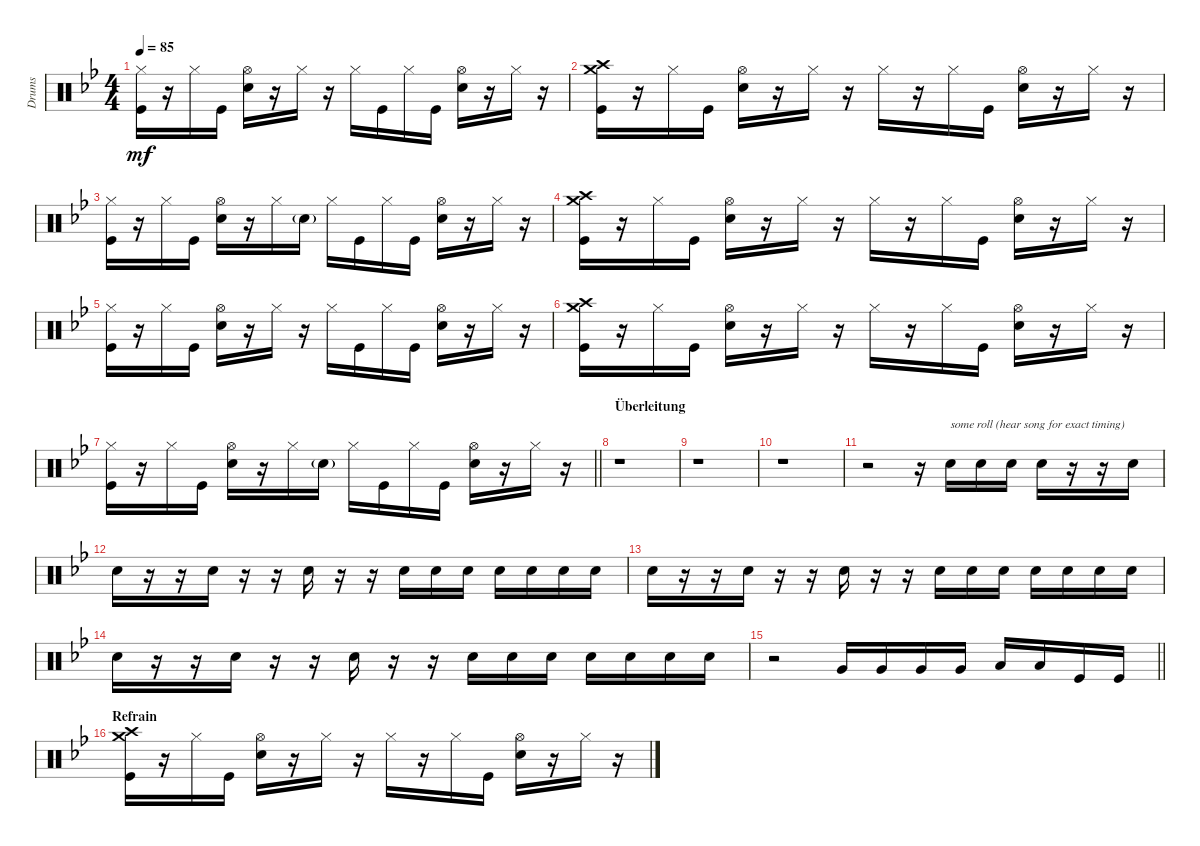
\track ("Drums" "Drums") {instrument percussion}
\staff {score}
\articulation defaults
\ts (4 4)
\tempo 85
\clef neutral
\ks gminor
("Kick (hit)" "Hi-Hat (closed)").16{dy mf} r.16 "Hi-Hat (closed)".16 "Kick (hit)".16 ("Snare (hit) 2" "Hi-Hat (open)").16 r.16 "Hi-Hat (closed)".16 r.16 "Hi-Hat (closed)".16 "Kick (hit)".16 "Hi-Hat (closed)".16 "Kick (hit)".16 ("Snare (hit) 2" "Hi-Hat (open)").16 r.16 "Hi-Hat (closed)".16 r.16 |
("Kick (hit)" "Crash high (hit)" "Crash medium (hit)").16 r.16 "Hi-Hat (closed)".16 "Kick (hit)".16 ("Snare (hit) 2" "Hi-Hat (open)").16 r.16 "Hi-Hat (closed)".16 r.16 "Hi-Hat (closed)".16 r.16 "Hi-Hat (closed)".16 "Kick (hit)".16 ("Snare (hit) 2" "Hi-Hat (open)").16 r.16 "Hi-Hat (closed)".16 r.16 |
("Kick (hit)" "Hi-Hat (closed)").16 r.16 "Hi-Hat (closed)".16 "Kick (hit)".16 ("Snare (hit) 2" "Hi-Hat (open)").16 r.16 "Hi-Hat (closed)".16 "Snare (hit) 2"{g}.16 "Hi-Hat (closed)".16 "Kick (hit)".16 "Hi-Hat (closed)".16 "Kick (hit)".16 ("Snare (hit) 2" "Hi-Hat (open)").16 r.16 "Hi-Hat (closed)".16 r.16 |
("Kick (hit)" "Crash medium (hit)" "Crash high (hit)").16 r.16 "Hi-Hat (closed)".16 "Kick (hit)".16 ("Snare (hit) 2" "Hi-Hat (open)").16 r.16 "Hi-Hat (closed)".16 r.16 "Hi-Hat (closed)".16 r.16 "Hi-Hat (closed)".16 "Kick (hit)".16 ("Snare (hit) 2" "Hi-Hat (open)").16 r.16 "Hi-Hat (closed)".16 r.16 |
("Kick (hit)" "Hi-Hat (closed)").16 r.16 "Hi-Hat (closed)".16 "Kick (hit)".16 ("Snare (hit) 2" "Hi-Hat (open)").16 r.16 "Hi-Hat (closed)".16 r.16 "Hi-Hat (closed)".16 "Kick (hit)".16 "Hi-Hat (closed)".16 "Kick (hit)".16 ("Snare (hit) 2" "Hi-Hat (open)").16 r.16 "Hi-Hat (closed)".16 r.16 |
("Kick (hit)" "Crash high (hit)" "Crash medium (hit)").16 r.16 "Hi-Hat (closed)".16 "Kick (hit)".16 ("Snare (hit) 2" "Hi-Hat (open)").16 r.16 "Hi-Hat (closed)".16 r.16 "Hi-Hat (closed)".16 r.16 "Hi-Hat (closed)".16 "Kick (hit)".16 ("Snare (hit) 2" "Hi-Hat (open)").16 r.16 "Hi-Hat (closed)".16 r.16 |
\barLineRight lightlight
("Kick (hit)" "Hi-Hat (closed)").16 r.16 "Hi-Hat (closed)".16 "Kick (hit)".16 ("Snare (hit) 2" "Hi-Hat (open)").16 r.16 "Hi-Hat (closed)".16 "Snare (hit) 2"{g}.16 "Hi-Hat (closed)".16 "Kick (hit)".16 "Hi-Hat (closed)".16 "Kick (hit)".16 ("Snare (hit) 2" "Hi-Hat (open)").16 r.16 "Hi-Hat (closed)".16 r.16 |
\section ("" "Überleitung")
r.1 |
r.1 |
r.1 |
r.2 r.16 "Snare (hit) 2".16{txt "some roll (hear song for exact timing)"} "Snare (hit) 2".16 "Snare (hit) 2".16 "Snare (hit) 2".16 r.16 r.16 "Snare (hit) 2".16 |
"Snare (hit) 2".16 r.16 r.16 "Snare (hit) 2".16 r.16 r.16 "Snare (hit) 2".16 r.16 r.16 "Snare (hit) 2".16 "Snare (hit) 2".16 "Snare (hit) 2".16 "Snare (hit) 2".16 "Snare (hit) 2".16 "Snare (hit) 2".16 "Snare (hit) 2".16 |
"Snare (hit) 2".16 r.16 r.16 "Snare (hit) 2".16 r.16 r.16 "Snare (hit) 2".16 r.16 r.16 "Snare (hit) 2".16 "Snare (hit) 2".16 "Snare (hit) 2".16 "Snare (hit) 2".16 "Snare (hit) 2".16 "Snare (hit) 2".16 "Snare (hit) 2".16 |
"Snare (hit) 2".16 r.16 r.16 "Snare (hit) 2".16 r.16 r.16 "Snare (hit) 2".16 r.16 r.16 "Snare (hit) 2".16 "Snare (hit) 2".16 "Snare (hit) 2".16 "Snare (hit) 2".16 "Snare (hit) 2".16 "Snare (hit) 2".16 "Snare (hit) 2".16 |
\barLineRight lightlight
r.2 "Very Low Tom (hit)".16 "Very Low Tom (hit)".16 "Very Low Tom (hit)".16 "Very Low Tom (hit)".16 "Low Tom (hit)".16 "Low Tom (hit)".16 "Kick (hit)".16 "Kick (hit)".16 |
\section ("" "Refrain")
("Kick (hit)" "Crash medium (hit)" "Crash high (hit)").16 r.16 "Hi-Hat (closed)".16 "Kick (hit)".16 ("Snare (hit) 2" "Hi-Hat (open)").16 r.16 "Hi-Hat (closed)".16 r.16 "Hi-Hat (closed)".16 r.16 "Hi-Hat (closed)".16 "Kick (hit)".16 ("Snare (hit) 2" "Hi-Hat (open)").16 r.16 "Hi-Hat (closed)".16 r.16
